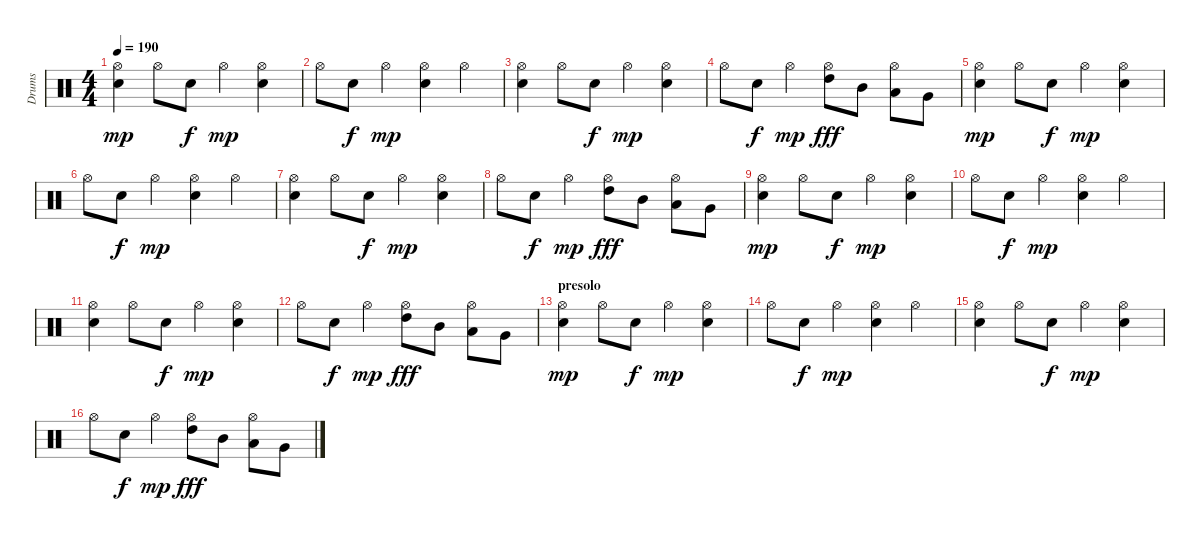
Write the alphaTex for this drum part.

\track ("Drums" "Drums") {instrument percussion}
\staff {score}
\articulation defaults
\ts (4 4)
\tempo 190
\clef neutral
\ks c
("Hi-Hat (open)" "Snare (hit) 2").4{dy mp} "Hi-Hat (open)".8 "Snare (hit) 2".8{dy f} "Hi-Hat (open)".4{dy mp} ("Hi-Hat (open)" "Snare (hit) 2").4 |
"Hi-Hat (open)".8 "Snare (hit) 2".8{dy f} "Hi-Hat (open)".4{dy mp} ("Hi-Hat (open)" "Snare (hit) 2").4 "Hi-Hat (open)".4 |
("Hi-Hat (open)" "Snare (hit) 2").4 "Hi-Hat (open)".8 "Snare (hit) 2".8{dy f} "Hi-Hat (open)".4{dy mp} ("Hi-Hat (open)" "Snare (hit) 2").4 |
"Hi-Hat (open)".8 "Snare (hit) 2".8{dy f} "Hi-Hat (open)".4{dy mp} ("Hi-Hat (open)" "High Tom (hit)").8{dy fff} "Mid Tom (hit)".8 ("Hi-Hat (open)" "Low Tom (hit)").8 "Very Low Tom (hit)".8 |
("Hi-Hat (open)" "Snare (hit) 2").4{dy mp} "Hi-Hat (open)".8 "Snare (hit) 2".8{dy f} "Hi-Hat (open)".4{dy mp} ("Hi-Hat (open)" "Snare (hit) 2").4 |
"Hi-Hat (open)".8 "Snare (hit) 2".8{dy f} "Hi-Hat (open)".4{dy mp} ("Hi-Hat (open)" "Snare (hit) 2").4 "Hi-Hat (open)".4 |
("Hi-Hat (open)" "Snare (hit) 2").4 "Hi-Hat (open)".8 "Snare (hit) 2".8{dy f} "Hi-Hat (open)".4{dy mp} ("Hi-Hat (open)" "Snare (hit) 2").4 |
"Hi-Hat (open)".8 "Snare (hit) 2".8{dy f} "Hi-Hat (open)".4{dy mp} ("Hi-Hat (open)" "High Tom (hit)").8{dy fff} "Mid Tom (hit)".8 ("Hi-Hat (open)" "Low Tom (hit)").8 "Very Low Tom (hit)".8 |
("Hi-Hat (open)" "Snare (hit) 2").4{dy mp} "Hi-Hat (open)".8 "Snare (hit) 2".8{dy f} "Hi-Hat (open)".4{dy mp} ("Hi-Hat (open)" "Snare (hit) 2").4 |
"Hi-Hat (open)".8 "Snare (hit) 2".8{dy f} "Hi-Hat (open)".4{dy mp} ("Hi-Hat (open)" "Snare (hit) 2").4 "Hi-Hat (open)".4 |
("Hi-Hat (open)" "Snare (hit) 2").4 "Hi-Hat (open)".8 "Snare (hit) 2".8{dy f} "Hi-Hat (open)".4{dy mp} ("Hi-Hat (open)" "Snare (hit) 2").4 |
"Hi-Hat (open)".8 "Snare (hit) 2".8{dy f} "Hi-Hat (open)".4{dy mp} ("Hi-Hat (open)" "High Tom (hit)").8{dy fff} "Mid Tom (hit)".8 ("Hi-Hat (open)" "Low Tom (hit)").8 "Very Low Tom (hit)".8 |
\section ("" "presolo")
("Hi-Hat (open)" "Snare (hit) 2").4{dy mp} "Hi-Hat (open)".8 "Snare (hit) 2".8{dy f} "Hi-Hat (open)".4{dy mp} ("Hi-Hat (open)" "Snare (hit) 2").4 |
"Hi-Hat (open)".8 "Snare (hit) 2".8{dy f} "Hi-Hat (open)".4{dy mp} ("Hi-Hat (open)" "Snare (hit) 2").4 "Hi-Hat (open)".4 |
("Hi-Hat (open)" "Snare (hit) 2").4 "Hi-Hat (open)".8 "Snare (hit) 2".8{dy f} "Hi-Hat (open)".4{dy mp} ("Hi-Hat (open)" "Snare (hit) 2").4 |
"Hi-Hat (open)".8 "Snare (hit) 2".8{dy f} "Hi-Hat (open)".4{dy mp} ("Hi-Hat (open)" "High Tom (hit)").8{dy fff} "Mid Tom (hit)".8 ("Hi-Hat (open)" "Low Tom (hit)").8 "Very Low Tom (hit)".8
